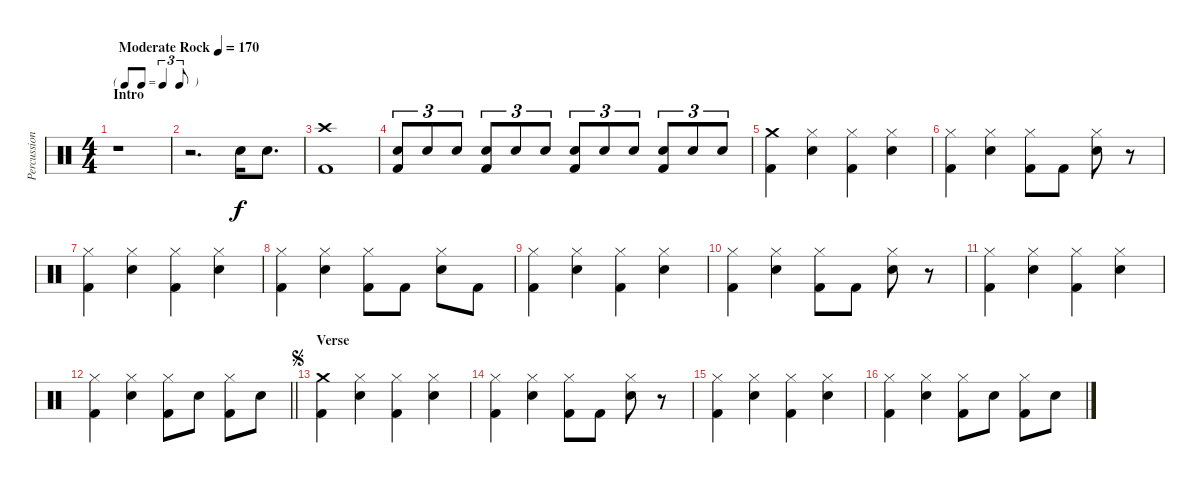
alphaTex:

\track ("Percussion" "Percussion") {instrument percussion}
\staff {score}
\articulation defaults
\ts (4 4)
\tf triplet8th
\section ("" "Intro")
\tempo (170 "Moderate Rock")
\clef neutral
\ks c
r.1{dy f} |
r.2{d} "Electric Snare (hit)".16 "Electric Snare (hit)".8{d} |
("Crash high (hit)" "Kick (hit) 2").1 |
("Electric Snare (hit)" "Kick (hit) 2").8{tu (3 2)} "Electric Snare (hit)".8{tu (3 2)} "Electric Snare (hit)".8{tu (3 2)} ("Electric Snare (hit)" "Kick (hit) 2").8{tu (3 2)} "Electric Snare (hit)".8{tu (3 2)} "Electric Snare (hit)".8{tu (3 2)} ("Electric Snare (hit)" "Kick (hit) 2").8{tu (3 2)} "Electric Snare (hit)".8{tu (3 2)} "Electric Snare (hit)".8{tu (3 2)} ("Electric Snare (hit)" "Kick (hit) 2").8{tu (3 2)} "Electric Snare (hit)".8{tu (3 2)} "Electric Snare (hit)".8{tu (3 2)} |
("Crash medium (hit)" "Kick (hit) 2").4 ("Hi-Hat (closed)" "Electric Snare (hit)").4 ("Hi-Hat (closed)" "Kick (hit) 2").4 ("Hi-Hat (closed)" "Electric Snare (hit)").4 |
("Hi-Hat (closed)" "Kick (hit) 2").4 ("Hi-Hat (closed)" "Electric Snare (hit)").4 ("Hi-Hat (closed)" "Kick (hit) 2").8 "Kick (hit) 2".8 ("Hi-Hat (closed)" "Electric Snare (hit)").8 r.8 |
("Hi-Hat (closed)" "Kick (hit) 2").4 ("Hi-Hat (closed)" "Electric Snare (hit)").4 ("Hi-Hat (closed)" "Kick (hit) 2").4 ("Hi-Hat (closed)" "Electric Snare (hit)").4 |
("Hi-Hat (closed)" "Kick (hit) 2").4 ("Hi-Hat (closed)" "Electric Snare (hit)").4 ("Hi-Hat (closed)" "Kick (hit) 2").8 "Kick (hit) 2".8 ("Hi-Hat (closed)" "Electric Snare (hit)").8 "Kick (hit) 2".8 |
("Hi-Hat (closed)" "Kick (hit) 2").4 ("Hi-Hat (closed)" "Electric Snare (hit)").4 ("Hi-Hat (closed)" "Kick (hit) 2").4 ("Hi-Hat (closed)" "Electric Snare (hit)").4 |
("Hi-Hat (closed)" "Kick (hit) 2").4 ("Hi-Hat (closed)" "Electric Snare (hit)").4 ("Hi-Hat (closed)" "Kick (hit) 2").8 "Kick (hit) 2".8 ("Hi-Hat (closed)" "Electric Snare (hit)").8 r.8 |
("Hi-Hat (closed)" "Kick (hit) 2").4 ("Hi-Hat (closed)" "Electric Snare (hit)").4 ("Hi-Hat (closed)" "Kick (hit) 2").4 ("Hi-Hat (closed)" "Electric Snare (hit)").4 |
\barLineRight lightlight
("Hi-Hat (closed)" "Kick (hit) 2").4 ("Hi-Hat (closed)" "Electric Snare (hit)").4 ("Hi-Hat (closed)" "Kick (hit) 2").8 "Electric Snare (hit)".8 ("Hi-Hat (closed)" "Kick (hit) 2").8 "Electric Snare (hit)".8 |
\section ("" "Verse")
\jump segno
("Crash medium (hit)" "Kick (hit) 2").4 ("Hi-Hat (closed)" "Electric Snare (hit)").4 ("Hi-Hat (closed)" "Kick (hit) 2").4 ("Hi-Hat (closed)" "Electric Snare (hit)").4 |
("Hi-Hat (closed)" "Kick (hit) 2").4 ("Hi-Hat (closed)" "Electric Snare (hit)").4 ("Hi-Hat (closed)" "Kick (hit) 2").8 "Kick (hit) 2".8 ("Hi-Hat (closed)" "Electric Snare (hit)").8 r.8 |
("Hi-Hat (closed)" "Kick (hit) 2").4 ("Hi-Hat (closed)" "Electric Snare (hit)").4 ("Hi-Hat (closed)" "Kick (hit) 2").4 ("Hi-Hat (closed)" "Electric Snare (hit)").4 |
("Hi-Hat (closed)" "Kick (hit) 2").4 ("Hi-Hat (closed)" "Electric Snare (hit)").4 ("Hi-Hat (closed)" "Kick (hit) 2").8 "Electric Snare (hit)".8 ("Hi-Hat (closed)" "Kick (hit) 2").8 "Electric Snare (hit)".8
